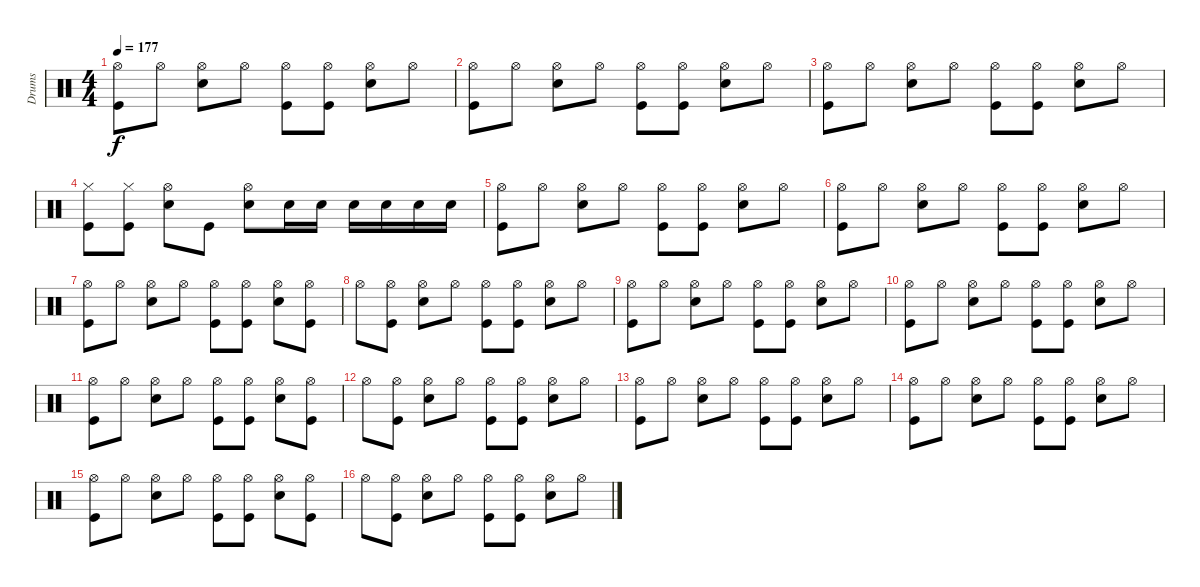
\track ("Drums" "Drums") {instrument percussion}
\staff {score}
\articulation defaults
\ts (4 4)
\tempo 177
\clef neutral
\ks c
("Hi-Hat (open)" "Kick (hit)").8{dy f} "Hi-Hat (open)".8 ("Hi-Hat (open)" "Snare (hit) 2").8 "Hi-Hat (open)".8 ("Hi-Hat (open)" "Kick (hit)").8 ("Hi-Hat (open)" "Kick (hit)").8 ("Hi-Hat (open)" "Snare (hit) 2").8 "Hi-Hat (open)".8 |
("Hi-Hat (open)" "Kick (hit)").8 "Hi-Hat (open)".8 ("Hi-Hat (open)" "Snare (hit) 2").8 "Hi-Hat (open)".8 ("Hi-Hat (open)" "Kick (hit)").8 ("Hi-Hat (open)" "Kick (hit)").8 ("Hi-Hat (open)" "Snare (hit) 2").8 "Hi-Hat (open)".8 |
("Hi-Hat (open)" "Kick (hit)").8 "Hi-Hat (open)".8 ("Hi-Hat (open)" "Snare (hit) 2").8 "Hi-Hat (open)".8 ("Hi-Hat (open)" "Kick (hit)").8 ("Hi-Hat (open)" "Kick (hit)").8 ("Hi-Hat (open)" "Snare (hit) 2").8 "Hi-Hat (open)".8 |
("Hi-Hat (closed)" "Kick (hit)").8 ("Hi-Hat (closed)" "Kick (hit)").8 ("Hi-Hat (open)" "Snare (hit) 2").8 "Kick (hit)".8 ("Hi-Hat (open)" "Snare (hit) 2").8 "Snare (hit) 2".16 "Snare (hit) 2".16 "Snare (hit) 2".16 "Snare (hit) 2".16 "Snare (hit) 2".16 "Snare (hit) 2".16 |
("Hi-Hat (open)" "Kick (hit)").8 "Hi-Hat (open)".8 ("Hi-Hat (open)" "Snare (hit) 2").8 "Hi-Hat (open)".8 ("Hi-Hat (open)" "Kick (hit)").8 ("Hi-Hat (open)" "Kick (hit)").8 ("Hi-Hat (open)" "Snare (hit) 2").8 "Hi-Hat (open)".8 |
("Hi-Hat (open)" "Kick (hit)").8 "Hi-Hat (open)".8 ("Hi-Hat (open)" "Snare (hit) 2").8 "Hi-Hat (open)".8 ("Hi-Hat (open)" "Kick (hit)").8 ("Hi-Hat (open)" "Kick (hit)").8 ("Hi-Hat (open)" "Snare (hit) 2").8 "Hi-Hat (open)".8 |
("Hi-Hat (open)" "Kick (hit)").8 "Hi-Hat (open)".8 ("Hi-Hat (open)" "Snare (hit) 2").8 "Hi-Hat (open)".8 ("Hi-Hat (open)" "Kick (hit)").8 ("Hi-Hat (open)" "Kick (hit)").8 ("Hi-Hat (open)" "Snare (hit) 2").8 ("Hi-Hat (open)" "Kick (hit)").8 |
"Hi-Hat (open)".8 ("Hi-Hat (open)" "Kick (hit)").8 ("Hi-Hat (open)" "Snare (hit) 2").8 "Hi-Hat (open)".8 ("Hi-Hat (open)" "Kick (hit)").8 ("Hi-Hat (open)" "Kick (hit)").8 ("Hi-Hat (open)" "Snare (hit) 2").8 "Hi-Hat (open)".8 |
("Hi-Hat (open)" "Kick (hit)").8 "Hi-Hat (open)".8 ("Hi-Hat (open)" "Snare (hit) 2").8 "Hi-Hat (open)".8 ("Hi-Hat (open)" "Kick (hit)").8 ("Hi-Hat (open)" "Kick (hit)").8 ("Hi-Hat (open)" "Snare (hit) 2").8 "Hi-Hat (open)".8 |
("Hi-Hat (open)" "Kick (hit)").8 "Hi-Hat (open)".8 ("Hi-Hat (open)" "Snare (hit) 2").8 "Hi-Hat (open)".8 ("Hi-Hat (open)" "Kick (hit)").8 ("Hi-Hat (open)" "Kick (hit)").8 ("Hi-Hat (open)" "Snare (hit) 2").8 "Hi-Hat (open)".8 |
("Hi-Hat (open)" "Kick (hit)").8 "Hi-Hat (open)".8 ("Hi-Hat (open)" "Snare (hit) 2").8 "Hi-Hat (open)".8 ("Hi-Hat (open)" "Kick (hit)").8 ("Hi-Hat (open)" "Kick (hit)").8 ("Hi-Hat (open)" "Snare (hit) 2").8 ("Hi-Hat (open)" "Kick (hit)").8 |
"Hi-Hat (open)".8 ("Hi-Hat (open)" "Kick (hit)").8 ("Hi-Hat (open)" "Snare (hit) 2").8 "Hi-Hat (open)".8 ("Hi-Hat (open)" "Kick (hit)").8 ("Hi-Hat (open)" "Kick (hit)").8 ("Hi-Hat (open)" "Snare (hit) 2").8 "Hi-Hat (open)".8 |
("Hi-Hat (open)" "Kick (hit)").8 "Hi-Hat (open)".8 ("Hi-Hat (open)" "Snare (hit) 2").8 "Hi-Hat (open)".8 ("Hi-Hat (open)" "Kick (hit)").8 ("Hi-Hat (open)" "Kick (hit)").8 ("Hi-Hat (open)" "Snare (hit) 2").8 "Hi-Hat (open)".8 |
("Hi-Hat (open)" "Kick (hit)").8 "Hi-Hat (open)".8 ("Hi-Hat (open)" "Snare (hit) 2").8 "Hi-Hat (open)".8 ("Hi-Hat (open)" "Kick (hit)").8 ("Hi-Hat (open)" "Kick (hit)").8 ("Hi-Hat (open)" "Snare (hit) 2").8 "Hi-Hat (open)".8 |
("Hi-Hat (open)" "Kick (hit)").8 "Hi-Hat (open)".8 ("Hi-Hat (open)" "Snare (hit) 2").8 "Hi-Hat (open)".8 ("Hi-Hat (open)" "Kick (hit)").8 ("Hi-Hat (open)" "Kick (hit)").8 ("Hi-Hat (open)" "Snare (hit) 2").8 ("Hi-Hat (open)" "Kick (hit)").8 |
"Hi-Hat (open)".8 ("Hi-Hat (open)" "Kick (hit)").8 ("Hi-Hat (open)" "Snare (hit) 2").8 "Hi-Hat (open)".8 ("Hi-Hat (open)" "Kick (hit)").8 ("Hi-Hat (open)" "Kick (hit)").8 ("Hi-Hat (open)" "Snare (hit) 2").8 "Hi-Hat (open)".8
